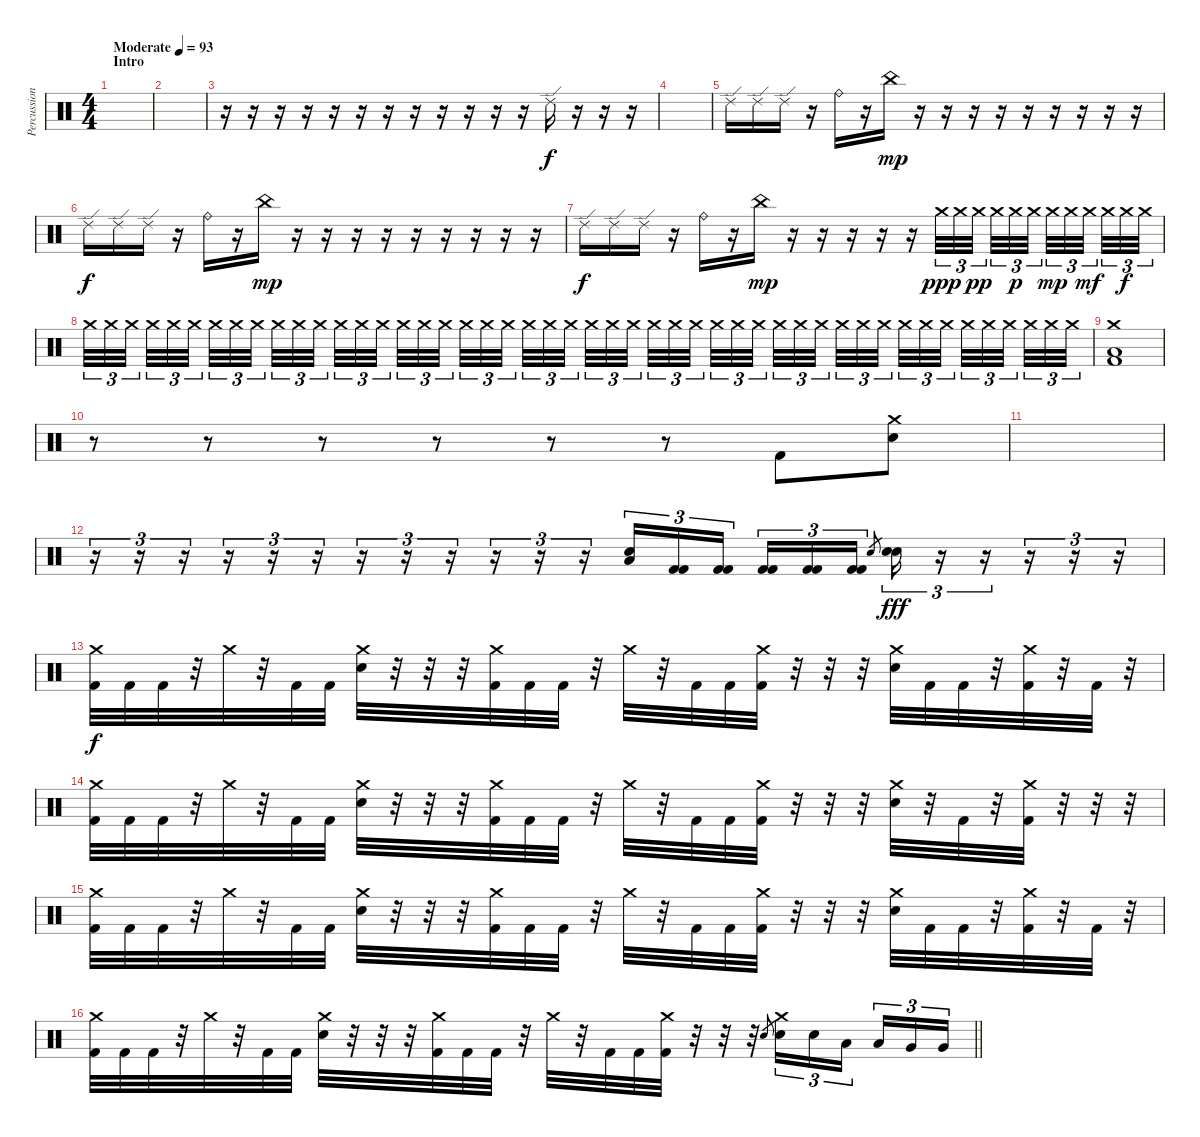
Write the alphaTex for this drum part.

\track ("Percussion" "Percussion") {instrument percussion}
\staff {score}
\articulation defaults
\ts (4 4)
\section ("" "Intro")
\tempo (93 "Moderate")
\clef neutral
\ks c
|
|
r.16 r.16 r.16 r.16 r.16 r.16 r.16 r.16 r.16 r.16 r.16 r.16 "Ride (edge) 2".16 r.16 r.16 r.16 |
|
"Ride (edge) 2".16{dy f} "Ride (edge) 2".16 "Ride (edge) 2".16 r.16 "Ride (bell)".16 r.16 "China (hit)".16{dy mp} r.16 r.16 r.16 r.16 r.16 r.16 r.16 r.16 r.16 |
"Ride (edge) 2".16{dy f} "Ride (edge) 2".16 "Ride (edge) 2".16 r.16 "Ride (bell)".16 r.16 "China (hit)".16{dy mp} r.16 r.16 r.16 r.16 r.16 r.16 r.16 r.16 r.16 |
"Ride (edge) 2".16{dy f} "Ride (edge) 2".16 "Ride (edge) 2".16 r.16 "Ride (bell)".16 r.16 "China (hit)".16{dy mp} r.16 r.16 r.16 r.16{volume 0} r.16 "Crash medium (hit)".32{tu (3 2) dy ppp volume 13} "Crash medium (hit)".32{tu (3 2)} "Crash medium (hit)".32{tu (3 2) dy pp beam splitsecondary} "Crash medium (hit)".32{tu (3 2)} "Crash medium (hit)".32{tu (3 2) dy p} "Crash medium (hit)".32{tu (3 2) beam splitsecondary} "Crash medium (hit)".32{tu (3 2) dy mp} "Crash medium (hit)".32{tu (3 2)} "Crash medium (hit)".32{tu (3 2) dy mf beam splitsecondary} "Crash medium (hit)".32{tu (3 2)} "Crash medium (hit)".32{tu (3 2) dy f} "Crash medium (hit)".32{tu (3 2)} |
"Crash medium (hit)".32{tu (3 2)} "Crash medium (hit)".32{tu (3 2)} "Crash medium (hit)".32{tu (3 2) beam splitsecondary} "Crash medium (hit)".32{tu (3 2)} "Crash medium (hit)".32{tu (3 2)} "Crash medium (hit)".32{tu (3 2) beam splitsecondary} "Crash medium (hit)".32{tu (3 2)} "Crash medium (hit)".32{tu (3 2)} "Crash medium (hit)".32{tu (3 2) beam splitsecondary} "Crash medium (hit)".32{tu (3 2)} "Crash medium (hit)".32{tu (3 2)} "Crash medium (hit)".32{tu (3 2)} "Crash medium (hit)".32{tu (3 2)} "Crash medium (hit)".32{tu (3 2)} "Crash medium (hit)".32{tu (3 2) beam splitsecondary} "Crash medium (hit)".32{tu (3 2)} "Crash medium (hit)".32{tu (3 2)} "Crash medium (hit)".32{tu (3 2) beam splitsecondary} "Crash medium (hit)".32{tu (3 2)} "Crash medium (hit)".32{tu (3 2)} "Crash medium (hit)".32{tu (3 2) beam splitsecondary} "Crash medium (hit)".32{tu (3 2)} "Crash medium (hit)".32{tu (3 2)} "Crash medium (hit)".32{tu (3 2)} "Crash medium (hit)".32{tu (3 2)} "Crash medium (hit)".32{tu (3 2)} "Crash medium (hit)".32{tu (3 2) beam splitsecondary} "Crash medium (hit)".32{tu (3 2)} "Crash medium (hit)".32{tu (3 2)} "Crash medium (hit)".32{tu (3 2) beam splitsecondary} "Crash medium (hit)".32{tu (3 2)} "Crash medium (hit)".32{tu (3 2)} "Crash medium (hit)".32{tu (3 2) beam splitsecondary} "Crash medium (hit)".32{tu (3 2)} "Crash medium (hit)".32{tu (3 2)} "Crash medium (hit)".32{tu (3 2)} "Crash medium (hit)".32{tu (3 2)} "Crash medium (hit)".32{tu (3 2)} "Crash medium (hit)".32{tu (3 2) beam splitsecondary} "Crash medium (hit)".32{tu (3 2)} "Crash medium (hit)".32{tu (3 2)} "Crash medium (hit)".32{tu (3 2) beam splitsecondary} "Crash medium (hit)".32{tu (3 2)} "Crash medium (hit)".32{tu (3 2)} "Crash medium (hit)".32{tu (3 2) beam splitsecondary} "Crash medium (hit)".32{tu (3 2)} "Crash medium (hit)".32{tu (3 2)} "Crash medium (hit)".32{tu (3 2)} |
("Crash medium (hit)" "Low Floor Tom (hit)" "Kick (hit) 2").1{volume 16 balance 8} |
r.8 r.8 r.8 r.8 r.8 r.8 "Kick (hit) 2".8 ("Crash medium (hit)" "Electric Snare (hit)").8 |
|
r.16{tu (3 2)} r.16{tu (3 2)} r.16{tu (3 2)} r.16{tu (3 2)} r.16{tu (3 2)} r.16{tu (3 2)} r.16{tu (3 2)} r.16{tu (3 2)} r.16{tu (3 2)} r.16{tu (3 2)} r.16{tu (3 2)} r.16{tu (3 2)} ("Electric Snare (hit)" "Low Floor Tom (hit)").16{tu (3 2)} ("Kick (hit) 2" "Kick (hit) 2").16{tu (3 2)} ("Kick (hit) 2" "Kick (hit) 2").16{tu (3 2) beam splitsecondary} ("Kick (hit) 2" "Kick (hit) 2").16{tu (3 2)} ("Kick (hit) 2" "Kick (hit) 2").16{tu (3 2)} ("Kick (hit) 2" "Kick (hit) 2").16{tu (3 2)} "Electric Snare (hit)".8{gr} ("Electric Snare (hit)" "Electric Snare (hit)").16{tu (3 2) dy fff} r.16{tu (3 2)} r.16{tu (3 2)} r.16{tu (3 2)} r.16{tu (3 2)} r.16{tu (3 2)} |
("Crash medium (hit)" "Kick (hit) 2").32{dy f} "Kick (hit) 2".32 "Kick (hit) 2".32 r.32 "Crash medium (hit)".32 r.32 "Kick (hit) 2".32 "Kick (hit) 2".32 ("Crash medium (hit)" "Electric Snare (hit)").32 r.32 r.32 r.32 ("Crash medium (hit)" "Kick (hit) 2").32 "Kick (hit) 2".32 "Kick (hit) 2".32 r.32 "Crash medium (hit)".32 r.32 "Kick (hit) 2".32 "Kick (hit) 2".32 ("Crash medium (hit)" "Kick (hit) 2").32 r.32 r.32 r.32 ("Crash medium (hit)" "Electric Snare (hit)").32 "Kick (hit) 2".32 "Kick (hit) 2".32 r.32 ("Crash medium (hit)" "Kick (hit) 2").32 r.32 "Kick (hit) 2".32 r.32 |
("Crash medium (hit)" "Kick (hit) 2").32 "Kick (hit) 2".32 "Kick (hit) 2".32 r.32 "Crash medium (hit)".32 r.32 "Kick (hit) 2".32 "Kick (hit) 2".32 ("Crash medium (hit)" "Electric Snare (hit)").32 r.32 r.32 r.32 ("Crash medium (hit)" "Kick (hit) 2").32 "Kick (hit) 2".32 "Kick (hit) 2".32 r.32 "Crash medium (hit)".32 r.32 "Kick (hit) 2".32 "Kick (hit) 2".32 ("Crash medium (hit)" "Kick (hit) 2").32 r.32 r.32 r.32 ("Crash medium (hit)" "Electric Snare (hit)").32 r.32 "Kick (hit) 2".32 r.32 ("Crash medium (hit)" "Kick (hit) 2").32 r.32 r.32 r.32 |
("Crash medium (hit)" "Kick (hit) 2").32 "Kick (hit) 2".32 "Kick (hit) 2".32 r.32 "Crash medium (hit)".32 r.32 "Kick (hit) 2".32 "Kick (hit) 2".32 ("Crash medium (hit)" "Electric Snare (hit)").32 r.32 r.32 r.32 ("Crash medium (hit)" "Kick (hit) 2").32 "Kick (hit) 2".32 "Kick (hit) 2".32 r.32 "Crash medium (hit)".32 r.32 "Kick (hit) 2".32 "Kick (hit) 2".32 ("Crash medium (hit)" "Kick (hit) 2").32 r.32 r.32 r.32 ("Crash medium (hit)" "Electric Snare (hit)").32 "Kick (hit) 2".32 "Kick (hit) 2".32 r.32 ("Crash medium (hit)" "Kick (hit) 2").32 r.32 "Kick (hit) 2".32 r.32 |
\barLineRight lightlight
("Crash medium (hit)" "Kick (hit) 2").32 "Kick (hit) 2".32 "Kick (hit) 2".32 r.32 "Crash medium (hit)".32 r.32 "Kick (hit) 2".32 "Kick (hit) 2".32 ("Crash medium (hit)" "Electric Snare (hit)").32 r.32 r.32 r.32 ("Crash medium (hit)" "Kick (hit) 2").32 "Kick (hit) 2".32 "Kick (hit) 2".32 r.32 "Crash medium (hit)".32 r.32 "Kick (hit) 2".32 "Kick (hit) 2".32 ("Crash medium (hit)" "Kick (hit) 2").32 r.32 r.32 r.32 "Electric Snare (hit)".8{gr} ("Crash medium (hit)" "Electric Snare (hit)").16{tu (3 2)} "Electric Snare (hit)".16{tu (3 2)} "Low Tom (hit)".16{tu (3 2) beam splitsecondary} "Low Tom (hit)".16{tu (3 2)} "Very Low Tom (hit)".16{tu (3 2)} "Very Low Tom (hit)".16{tu (3 2)}
